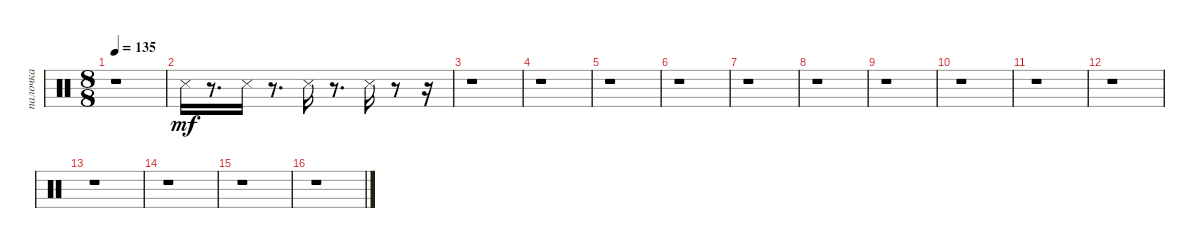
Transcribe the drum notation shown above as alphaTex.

\track ("палочка" "палочка") {instrument percussion}
\staff {score}
\articulation defaults
\ts (8 8)
\tempo 135
\clef neutral
\ks c
r.1{dy mf} |
"Snare (side stick) 3".16 r.8{d} "Snare (side stick) 3".16 r.8{d} "Snare (side stick) 3".16 r.8{d} "Snare (side stick) 3".16 r.8 r.16 |
r.1 |
r.1 |
r.1 |
r.1 |
r.1 |
r.1 |
r.1 |
r.1 |
r.1 |
r.1 |
r.1 |
r.1 |
r.1 |
r.1
